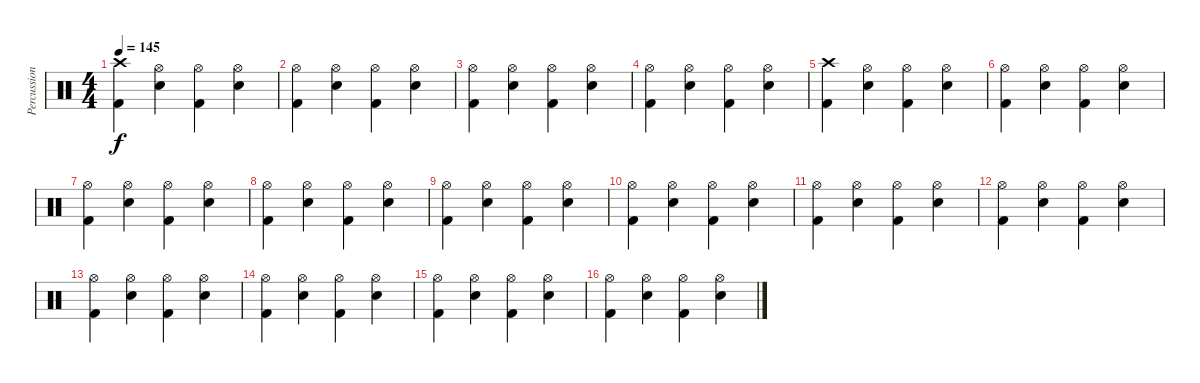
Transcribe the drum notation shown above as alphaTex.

\track ("Percussion" "Percussion") {instrument percussion}
\staff {score}
\articulation defaults
\ts (4 4)
\tempo 145
\clef neutral
\ks c
("Crash high (hit)" "Kick (hit) 2").4{dy f} ("Hi-Hat (open)" "Snare (hit) 2").4 ("Hi-Hat (open)" "Kick (hit) 2").4 ("Hi-Hat (open)" "Snare (hit) 2").4 |
("Hi-Hat (open)" "Kick (hit) 2").4 ("Hi-Hat (open)" "Snare (hit) 2").4 ("Hi-Hat (open)" "Kick (hit) 2").4 ("Hi-Hat (open)" "Snare (hit) 2").4 |
("Hi-Hat (open)" "Kick (hit) 2").4 ("Hi-Hat (open)" "Snare (hit) 2").4 ("Hi-Hat (open)" "Kick (hit) 2").4 ("Hi-Hat (open)" "Snare (hit) 2").4 |
("Hi-Hat (open)" "Kick (hit) 2").4 ("Hi-Hat (open)" "Snare (hit) 2").4 ("Hi-Hat (open)" "Kick (hit) 2").4 ("Hi-Hat (open)" "Snare (hit) 2").4 |
("Crash high (hit)" "Kick (hit) 2").4 ("Hi-Hat (open)" "Snare (hit) 2").4 ("Hi-Hat (open)" "Kick (hit) 2").4 ("Hi-Hat (open)" "Snare (hit) 2").4 |
("Hi-Hat (open)" "Kick (hit) 2").4 ("Hi-Hat (open)" "Snare (hit) 2").4 ("Hi-Hat (open)" "Kick (hit) 2").4 ("Hi-Hat (open)" "Snare (hit) 2").4 |
("Hi-Hat (open)" "Kick (hit) 2").4 ("Hi-Hat (open)" "Snare (hit) 2").4 ("Hi-Hat (open)" "Kick (hit) 2").4 ("Hi-Hat (open)" "Snare (hit) 2").4 |
("Hi-Hat (open)" "Kick (hit) 2").4 ("Hi-Hat (open)" "Snare (hit) 2").4 ("Hi-Hat (open)" "Kick (hit) 2").4 ("Hi-Hat (open)" "Snare (hit) 2").4 |
("Hi-Hat (open)" "Kick (hit) 2").4 ("Hi-Hat (open)" "Snare (hit) 2").4 ("Hi-Hat (open)" "Kick (hit) 2").4 ("Hi-Hat (open)" "Snare (hit) 2").4 |
("Hi-Hat (open)" "Kick (hit) 2").4 ("Hi-Hat (open)" "Snare (hit) 2").4 ("Hi-Hat (open)" "Kick (hit) 2").4 ("Hi-Hat (open)" "Snare (hit) 2").4 |
("Hi-Hat (open)" "Kick (hit) 2").4 ("Hi-Hat (open)" "Snare (hit) 2").4 ("Hi-Hat (open)" "Kick (hit) 2").4 ("Hi-Hat (open)" "Snare (hit) 2").4 |
("Hi-Hat (open)" "Kick (hit) 2").4 ("Hi-Hat (open)" "Snare (hit) 2").4 ("Hi-Hat (open)" "Kick (hit) 2").4 ("Hi-Hat (open)" "Snare (hit) 2").4 |
("Hi-Hat (open)" "Kick (hit) 2").4 ("Hi-Hat (open)" "Snare (hit) 2").4 ("Hi-Hat (open)" "Kick (hit) 2").4 ("Hi-Hat (open)" "Snare (hit) 2").4 |
("Hi-Hat (open)" "Kick (hit) 2").4 ("Hi-Hat (open)" "Snare (hit) 2").4 ("Hi-Hat (open)" "Kick (hit) 2").4 ("Hi-Hat (open)" "Snare (hit) 2").4 |
("Hi-Hat (open)" "Kick (hit) 2").4 ("Hi-Hat (open)" "Snare (hit) 2").4 ("Hi-Hat (open)" "Kick (hit) 2").4 ("Hi-Hat (open)" "Snare (hit) 2").4 |
("Hi-Hat (open)" "Kick (hit) 2").4 ("Hi-Hat (open)" "Snare (hit) 2").4 ("Hi-Hat (open)" "Kick (hit) 2").4 ("Hi-Hat (open)" "Snare (hit) 2").4
